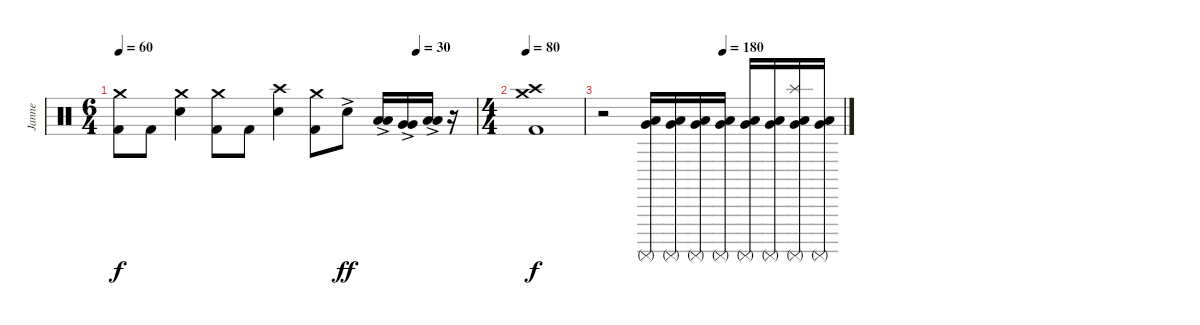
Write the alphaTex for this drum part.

\track ("Janne" "Janne") {instrument percussion}
\staff {score}
\articulation defaults
\ts (6 4)
\tempo 60
\tempo (30 0.8333333333333334)
\clef neutral
\ks c
("Kick (hit) 2" "Crash medium (hit)").8{dy f} "Kick (hit) 2".8 ("Snare (hit) 2" "Crash medium (hit)").4 ("Kick (hit) 2" "Crash medium (hit)").8 "Kick (hit) 2".8 ("Snare (hit) 2" "Crash high (hit)").4 ("Kick (hit) 2" "Crash medium (hit)").8 "Snare (hit) 2"{ac}.8{dy ff} ("Low Tom (hit)"{ac} "Low Tom (hit)"{ac}).16 ("Very Low Tom (hit)"{ac} "Very Low Tom (hit)"{ac}).16 ("Low Floor Tom (hit)"{ac} "Low Floor Tom (hit)"{ac}).16 r.16 |
\ts (4 4)
\tempo 80
("Kick (hit) 2" "Crash medium (hit)" "Crash high (hit)").1{dy f} |
\tempo (180 0.5)
r.2{volume 0} ("Very Low Tom (hit)" "Low Floor Tom (hit)" "Surdo (mute)").16{volume 8} ("Very Low Tom (hit)" "Low Floor Tom (hit)" "Surdo (mute)").16 ("Very Low Tom (hit)" "Low Floor Tom (hit)" "Surdo (mute)").16 ("Very Low Tom (hit)" "Low Floor Tom (hit)" "Surdo (mute)").16 ("Very Low Tom (hit)" "Low Floor Tom (hit)" "Surdo (mute)").16 ("Very Low Tom (hit)" "Low Floor Tom (hit)" "Surdo (mute)").16 ("Very Low Tom (hit)" "Low Floor Tom (hit)" "Splash (hit)" "Surdo (mute)").16 ("Very Low Tom (hit)" "Low Floor Tom (hit)" "Surdo (mute)").16
